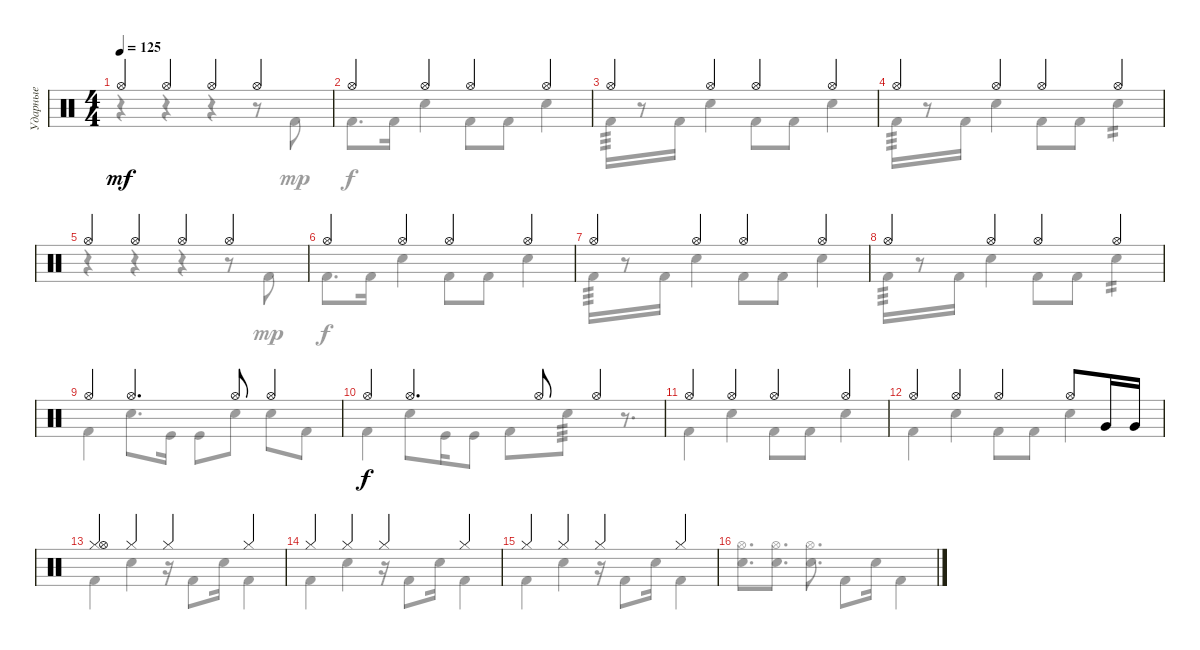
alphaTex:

\track ("Ударные" "Ударные") {instrument percussion}
\staff {score}
\articulation defaults
\voice
\ts (4 4)
\tempo 125
\clef neutral
\ks c "Hi-Hat (open)".4{dy mf} "Hi-Hat (open)".4 "Hi-Hat (open)".4 "Hi-Hat (open)".4
|
"Hi-Hat (open)".4 "Hi-Hat (open)".4 "Hi-Hat (open)".4 "Hi-Hat (open)".4 |
"Hi-Hat (open)".4 "Hi-Hat (open)".4 "Hi-Hat (open)".4 "Hi-Hat (open)".4 |
"Hi-Hat (open)".4 "Hi-Hat (open)".4 "Hi-Hat (open)".4 "Hi-Hat (open)".4 |
"Hi-Hat (open)".4 "Hi-Hat (open)".4 "Hi-Hat (open)".4 "Hi-Hat (open)".4 |
"Hi-Hat (open)".4 "Hi-Hat (open)".4 "Hi-Hat (open)".4 "Hi-Hat (open)".4 |
"Hi-Hat (open)".4 "Hi-Hat (open)".4 "Hi-Hat (open)".4 "Hi-Hat (open)".4 |
"Hi-Hat (open)".4 "Hi-Hat (open)".4 "Hi-Hat (open)".4 "Hi-Hat (open)".4 |
"Hi-Hat (open)".4 "Hi-Hat (open)".4{d} "Hi-Hat (open)".8 "Hi-Hat (open)".4 |
"Hi-Hat (open)".4{dy f} "Hi-Hat (open)".4{d} "Hi-Hat (open)".8 "Hi-Hat (open)".4 |
"Hi-Hat (open)".4 "Hi-Hat (open)".4 "Hi-Hat (open)".4 "Hi-Hat (open)".4 |
"Hi-Hat (open)".4 "Hi-Hat (open)".4 "Hi-Hat (open)".4 "Hi-Hat (open)".8 "Very Low Tom (hit)".16 "Very Low Tom (hit)".16 |
("Hi-Hat (closed)" "Hi-Hat (open)").4 "Hi-Hat (closed)".4 "Hi-Hat (closed)".4 "Hi-Hat (closed)".4 |
"Hi-Hat (closed)".4 "Hi-Hat (closed)".4 "Hi-Hat (closed)".4 "Hi-Hat (closed)".4 |
"Hi-Hat (closed)".4 "Hi-Hat (closed)".4 "Hi-Hat (closed)".4 "Hi-Hat (closed)".4 |
\voice
\clef neutral
\ottava regular
\simile none
\ks c
r.4{dy mp} r.4 r.4 r.8 "Kick (hit) 2".8 |
"Kick (hit) 2".8{d dy f} "Kick (hit) 2".16 "Electric Snare (hit)".4 "Kick (hit) 2".8 "Kick (hit) 2".8 "Electric Snare (hit)".4 |
"Kick (hit) 2".16{tp 3} r.8 "Kick (hit) 2".16 "Electric Snare (hit)".4 "Kick (hit) 2".8 "Kick (hit) 2".8 "Electric Snare (hit)".4 |
"Kick (hit) 2".16{tp 3} r.8 "Kick (hit) 2".16 "Electric Snare (hit)".4 "Kick (hit) 2".8 "Kick (hit) 2".8 "Electric Snare (hit)".4{tp 2} |
r.4 r.4 r.4 r.8 "Kick (hit) 2".8{dy mp} |
"Kick (hit) 2".8{d dy f} "Kick (hit) 2".16 "Electric Snare (hit)".4 "Kick (hit) 2".8 "Kick (hit) 2".8 "Electric Snare (hit)".4 |
"Kick (hit) 2".16{tp 3} r.8 "Kick (hit) 2".16 "Electric Snare (hit)".4 "Kick (hit) 2".8 "Kick (hit) 2".8 "Electric Snare (hit)".4 |
"Kick (hit) 2".16{tp 3} r.8 "Kick (hit) 2".16 "Electric Snare (hit)".4 "Kick (hit) 2".8 "Kick (hit) 2".8 "Electric Snare (hit)".4{tp 2} |
"Kick (hit) 2".4 "Snare (hit) 2".8{d} "Kick (hit)".16 "Kick (hit)".8 "Electric Snare (hit)".8 "Electric Snare (hit)".8 "Kick (hit) 2".8 |
"Kick (hit) 2".4 "Snare (hit) 2".8 "Kick (hit)".16 "Kick (hit)".8 "Kick (hit) 2".8 "Electric Snare (hit)".8{tp 3} r.8{d} |
"Kick (hit) 2".4 "Electric Snare (hit)".4 "Kick (hit) 2".8 "Kick (hit) 2".8 "Electric Snare (hit)".4 |
"Kick (hit) 2".4 "Electric Snare (hit)".4 "Kick (hit) 2".8 "Kick (hit) 2".8 "Electric Snare (hit)".4 |
"Kick (hit) 2".4 "Electric Snare (hit)".4 r.16 "Kick (hit) 2".8 "Electric Snare (hit)".16 "Kick (hit) 2".4 |
"Kick (hit) 2".4 "Electric Snare (hit)".4 r.16 "Kick (hit) 2".8 "Electric Snare (hit)".16 "Kick (hit) 2".4 |
"Kick (hit) 2".4 "Electric Snare (hit)".4 r.16 "Kick (hit) 2".8 "Electric Snare (hit)".16 "Kick (hit) 2".4 |
("Hi-Hat (open)" "Electric Snare (hit)").8{d} ("Hi-Hat (open)" "Electric Snare (hit)").8{d} ("Hi-Hat (open)" "Electric Snare (hit)").8{d} "Kick (hit) 2".8 "Electric Snare (hit)".16 "Kick (hit) 2".4
